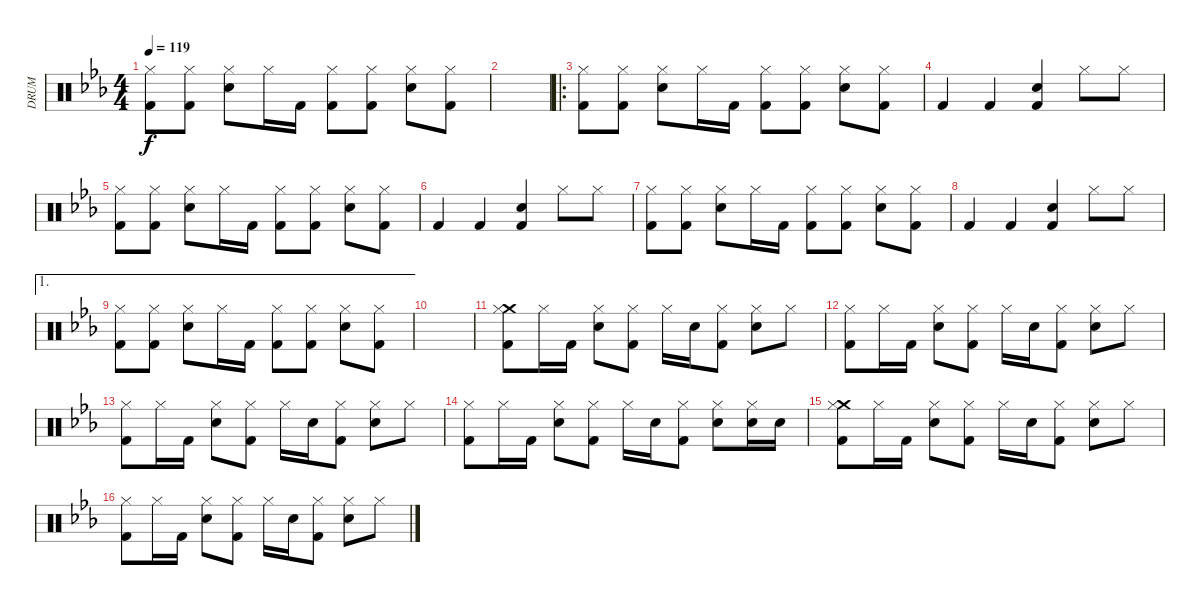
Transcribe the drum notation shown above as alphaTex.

\track ("DRUM" "DRUM") {instrument percussion}
\staff {score}
\articulation defaults
\ts (4 4)
\tempo 119
\clef neutral
\ks eb
("Hi-Hat (closed)" "Kick (hit) 2").8{dy f} ("Hi-Hat (closed)" "Kick (hit) 2").8 ("Hi-Hat (closed)" "Snare (hit) 2").8 "Hi-Hat (closed)".16 "Kick (hit) 2".16 ("Hi-Hat (closed)" "Kick (hit) 2").8 ("Hi-Hat (closed)" "Kick (hit) 2").8 ("Hi-Hat (closed)" "Snare (hit) 2").8 ("Hi-Hat (closed)" "Kick (hit) 2").8 |
|
\ro
("Hi-Hat (closed)" "Kick (hit) 2").8 ("Hi-Hat (closed)" "Kick (hit) 2").8 ("Hi-Hat (closed)" "Snare (hit) 2").8 "Hi-Hat (closed)".16 "Kick (hit) 2".16 ("Hi-Hat (closed)" "Kick (hit) 2").8 ("Hi-Hat (closed)" "Kick (hit) 2").8 ("Hi-Hat (closed)" "Snare (hit) 2").8 ("Hi-Hat (closed)" "Kick (hit) 2").8 |
"Kick (hit) 2".4 "Kick (hit) 2".4 ("Snare (hit) 2" "Kick (hit) 2").4 "Hi-Hat (closed)".8 "Hi-Hat (closed)".8 |
("Hi-Hat (closed)" "Kick (hit) 2").8 ("Hi-Hat (closed)" "Kick (hit) 2").8 ("Hi-Hat (closed)" "Snare (hit) 2").8 "Hi-Hat (closed)".16 "Kick (hit) 2".16 ("Hi-Hat (closed)" "Kick (hit) 2").8 ("Hi-Hat (closed)" "Kick (hit) 2").8 ("Hi-Hat (closed)" "Snare (hit) 2").8 ("Hi-Hat (closed)" "Kick (hit) 2").8 |
"Kick (hit) 2".4 "Kick (hit) 2".4 ("Snare (hit) 2" "Kick (hit) 2").4 "Hi-Hat (closed)".8 "Hi-Hat (closed)".8 |
("Hi-Hat (closed)" "Kick (hit) 2").8 ("Hi-Hat (closed)" "Kick (hit) 2").8 ("Hi-Hat (closed)" "Snare (hit) 2").8 "Hi-Hat (closed)".16 "Kick (hit) 2".16 ("Hi-Hat (closed)" "Kick (hit) 2").8 ("Hi-Hat (closed)" "Kick (hit) 2").8 ("Hi-Hat (closed)" "Snare (hit) 2").8 ("Hi-Hat (closed)" "Kick (hit) 2").8 |
"Kick (hit) 2".4 "Kick (hit) 2".4 ("Snare (hit) 2" "Kick (hit) 2").4 "Hi-Hat (closed)".8 "Hi-Hat (closed)".8 |
\ae 1
("Hi-Hat (closed)" "Kick (hit) 2").8 ("Hi-Hat (closed)" "Kick (hit) 2").8 ("Hi-Hat (closed)" "Snare (hit) 2").8 "Hi-Hat (closed)".16 "Kick (hit) 2".16 ("Hi-Hat (closed)" "Kick (hit) 2").8 ("Hi-Hat (closed)" "Kick (hit) 2").8 ("Hi-Hat (closed)" "Snare (hit) 2").8 ("Hi-Hat (closed)" "Kick (hit) 2").8 |
|
("Crash medium (hit)" "Hi-Hat (closed)" "Kick (hit) 2").8 "Hi-Hat (closed)".16 "Kick (hit) 2".16 ("Hi-Hat (closed)" "Snare (hit) 2").8 ("Hi-Hat (closed)" "Kick (hit) 2").8 "Hi-Hat (closed)".16 "Snare (hit) 2".16 ("Hi-Hat (closed)" "Kick (hit) 2").8 ("Hi-Hat (closed)" "Snare (hit) 2").8 "Hi-Hat (closed)".8 |
("Hi-Hat (closed)" "Kick (hit) 2").8 "Hi-Hat (closed)".16 "Kick (hit) 2".16 ("Hi-Hat (closed)" "Snare (hit) 2").8 ("Hi-Hat (closed)" "Kick (hit) 2").8 "Hi-Hat (closed)".16 "Snare (hit) 2".16 ("Hi-Hat (closed)" "Kick (hit) 2").8 ("Hi-Hat (closed)" "Snare (hit) 2").8 "Hi-Hat (closed)".8 |
("Hi-Hat (closed)" "Kick (hit) 2").8 "Hi-Hat (closed)".16 "Kick (hit) 2".16 ("Hi-Hat (closed)" "Snare (hit) 2").8 ("Hi-Hat (closed)" "Kick (hit) 2").8 "Hi-Hat (closed)".16 "Snare (hit) 2".16 ("Hi-Hat (closed)" "Kick (hit) 2").8 ("Hi-Hat (closed)" "Snare (hit) 2").8 "Hi-Hat (closed)".8 |
("Hi-Hat (closed)" "Kick (hit) 2").8 "Hi-Hat (closed)".16 "Kick (hit) 2".16 ("Hi-Hat (closed)" "Snare (hit) 2").8 ("Hi-Hat (closed)" "Kick (hit) 2").8 "Hi-Hat (closed)".16 "Snare (hit) 2".16 ("Hi-Hat (closed)" "Kick (hit) 2").8 ("Hi-Hat (closed)" "Snare (hit) 2").8 ("Hi-Hat (closed)" "Snare (hit) 2").16 "Snare (hit) 2".16 |
("Crash medium (hit)" "Hi-Hat (closed)" "Kick (hit) 2").8 "Hi-Hat (closed)".16 "Kick (hit) 2".16 ("Hi-Hat (closed)" "Snare (hit) 2").8 ("Hi-Hat (closed)" "Kick (hit) 2").8 "Hi-Hat (closed)".16 "Snare (hit) 2".16 ("Hi-Hat (closed)" "Kick (hit) 2").8 ("Hi-Hat (closed)" "Snare (hit) 2").8 "Hi-Hat (closed)".8 |
("Hi-Hat (closed)" "Kick (hit) 2").8 "Hi-Hat (closed)".16 "Kick (hit) 2".16 ("Hi-Hat (closed)" "Snare (hit) 2").8 ("Hi-Hat (closed)" "Kick (hit) 2").8 "Hi-Hat (closed)".16 "Snare (hit) 2".16 ("Hi-Hat (closed)" "Kick (hit) 2").8 ("Hi-Hat (closed)" "Snare (hit) 2").8 "Hi-Hat (closed)".8
